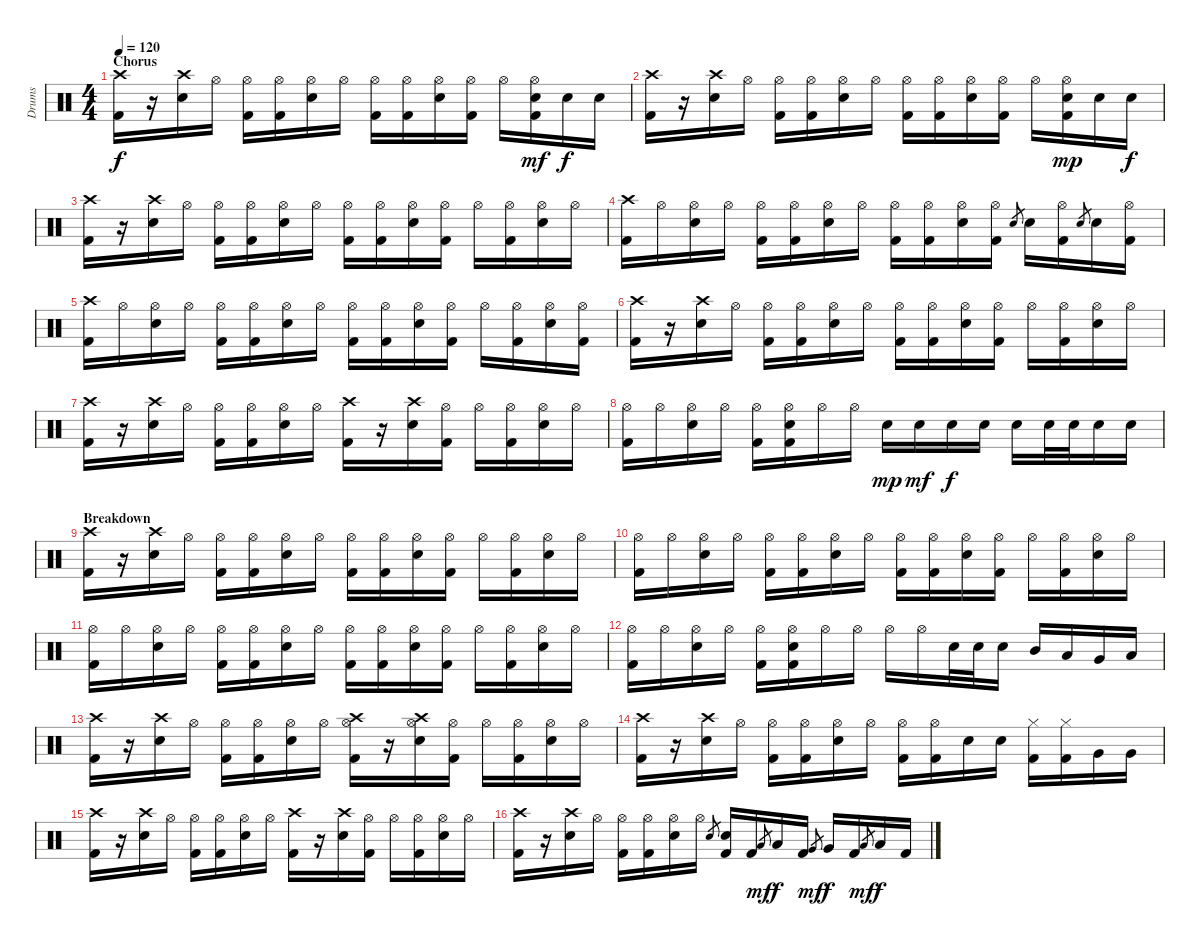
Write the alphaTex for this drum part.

\track ("Drums" "Drums") {instrument percussion}
\staff {score}
\articulation defaults
\ts (4 4)
\section ("" "Chorus")
\tempo 120
\clef neutral
\ks c
("Crash high (hit)" "Kick (hit) 2").16{dy f} r.16 ("Crash high (hit)" "Electric Snare (hit)").16 "Hi-Hat (open)".16 ("Hi-Hat (open)" "Kick (hit) 2").16 ("Hi-Hat (open)" "Kick (hit) 2").16 ("Hi-Hat (open)" "Electric Snare (hit)").16 "Hi-Hat (open)".16 ("Hi-Hat (open)" "Kick (hit) 2").16 ("Hi-Hat (open)" "Kick (hit) 2").16 ("Hi-Hat (open)" "Electric Snare (hit)").16 ("Hi-Hat (open)" "Kick (hit) 2").16 "Hi-Hat (open)".16 ("Hi-Hat (open)" "Electric Snare (hit)" "Kick (hit) 2").16{dy mf} "Electric Snare (hit)".16{dy f} "Electric Snare (hit)".16 |
("Crash high (hit)" "Kick (hit) 2").16 r.16 ("Crash high (hit)" "Electric Snare (hit)").16 "Hi-Hat (open)".16 ("Hi-Hat (open)" "Kick (hit) 2").16 ("Hi-Hat (open)" "Kick (hit) 2").16 ("Hi-Hat (open)" "Electric Snare (hit)").16 "Hi-Hat (open)".16 ("Hi-Hat (open)" "Kick (hit) 2").16 ("Hi-Hat (open)" "Kick (hit) 2").16 ("Hi-Hat (open)" "Electric Snare (hit)").16 ("Hi-Hat (open)" "Kick (hit) 2").16 "Hi-Hat (open)".16 ("Hi-Hat (open)" "Electric Snare (hit)" "Kick (hit) 2").16{dy mp} "Electric Snare (hit)".16 "Electric Snare (hit)".16{dy f} |
("Crash high (hit)" "Kick (hit) 2").16 r.16 ("Crash high (hit)" "Electric Snare (hit)").16 "Hi-Hat (open)".16 ("Hi-Hat (open)" "Kick (hit) 2").16 ("Hi-Hat (open)" "Kick (hit) 2").16 ("Hi-Hat (open)" "Electric Snare (hit)").16 "Hi-Hat (open)".16 ("Hi-Hat (open)" "Kick (hit) 2").16 ("Hi-Hat (open)" "Kick (hit) 2").16 ("Hi-Hat (open)" "Electric Snare (hit)").16 ("Hi-Hat (open)" "Kick (hit) 2").16 "Hi-Hat (open)".16 ("Hi-Hat (open)" "Kick (hit) 2").16 ("Hi-Hat (open)" "Electric Snare (hit)").16 "Hi-Hat (open)".16 |
("Crash high (hit)" "Kick (hit) 2").16 "Hi-Hat (open)".16 ("Hi-Hat (open)" "Electric Snare (hit)").16 "Hi-Hat (open)".16 ("Hi-Hat (open)" "Kick (hit) 2").16 ("Hi-Hat (open)" "Kick (hit) 2").16 ("Hi-Hat (open)" "Electric Snare (hit)").16 "Hi-Hat (open)".16 ("Hi-Hat (open)" "Kick (hit) 2").16 ("Hi-Hat (open)" "Kick (hit) 2").16 ("Hi-Hat (open)" "Electric Snare (hit)").16 ("Hi-Hat (open)" "Kick (hit) 2").16 "Electric Snare (hit)".8{gr} "Electric Snare (hit)".16 ("Hi-Hat (open)" "Kick (hit) 2").16 "Electric Snare (hit)".8{gr} "Electric Snare (hit)".16 ("Hi-Hat (open)" "Kick (hit) 2").16 |
("Crash high (hit)" "Kick (hit) 2").16 "Hi-Hat (open)".16 ("Hi-Hat (open)" "Electric Snare (hit)").16 "Hi-Hat (open)".16 ("Hi-Hat (open)" "Kick (hit) 2").16 ("Hi-Hat (open)" "Kick (hit) 2").16 ("Hi-Hat (open)" "Electric Snare (hit)").16 "Hi-Hat (open)".16 ("Hi-Hat (open)" "Kick (hit) 2").16 ("Hi-Hat (open)" "Kick (hit) 2").16 ("Hi-Hat (open)" "Electric Snare (hit)").16 ("Hi-Hat (open)" "Kick (hit) 2").16 "Hi-Hat (open)".16 ("Hi-Hat (open)" "Kick (hit) 2").16 ("Hi-Hat (open)" "Electric Snare (hit)").16 ("Hi-Hat (open)" "Kick (hit) 2").16 |
("Crash high (hit)" "Kick (hit) 2").16 r.16 ("Crash high (hit)" "Electric Snare (hit)").16 "Hi-Hat (open)".16 ("Hi-Hat (open)" "Kick (hit) 2").16 ("Hi-Hat (open)" "Kick (hit) 2").16 ("Hi-Hat (open)" "Electric Snare (hit)").16 "Hi-Hat (open)".16 ("Hi-Hat (open)" "Kick (hit) 2").16 ("Hi-Hat (open)" "Kick (hit) 2").16 ("Hi-Hat (open)" "Electric Snare (hit)").16 ("Hi-Hat (open)" "Kick (hit) 2").16 "Hi-Hat (open)".16 ("Hi-Hat (open)" "Kick (hit) 2").16 ("Hi-Hat (open)" "Electric Snare (hit)").16 "Hi-Hat (open)".16 |
("Crash high (hit)" "Kick (hit) 2").16 r.16 ("Crash high (hit)" "Electric Snare (hit)").16 "Hi-Hat (open)".16 ("Hi-Hat (open)" "Kick (hit) 2").16 ("Hi-Hat (open)" "Kick (hit) 2").16 ("Hi-Hat (open)" "Electric Snare (hit)").16 "Hi-Hat (open)".16 ("Crash high (hit)" "Kick (hit) 2").16 r.16 ("Crash high (hit)" "Electric Snare (hit)").16 ("Hi-Hat (open)" "Kick (hit) 2").16 "Hi-Hat (open)".16 ("Hi-Hat (open)" "Kick (hit) 2").16 ("Hi-Hat (open)" "Electric Snare (hit)").16 "Hi-Hat (open)".16 |
("Hi-Hat (open)" "Kick (hit) 2").16 "Hi-Hat (open)".16 ("Hi-Hat (open)" "Electric Snare (hit)").16 "Hi-Hat (open)".16 ("Hi-Hat (open)" "Kick (hit) 2").16 ("Hi-Hat (open)" "Electric Snare (hit)" "Kick (hit) 2").16 "Hi-Hat (open)".16 "Hi-Hat (open)".16 "Electric Snare (hit)".16{dy mp} "Electric Snare (hit)".16{dy mf} "Electric Snare (hit)".16{dy f} "Electric Snare (hit)".16 "Electric Snare (hit)".16 "Electric Snare (hit)".32 "Electric Snare (hit)".32 "Electric Snare (hit)".16 "Electric Snare (hit)".16 |
\section ("" "Breakdown")
("Crash high (hit)" "Kick (hit) 2").16 r.16 ("Crash high (hit)" "Electric Snare (hit)").16 "Hi-Hat (open)".16 ("Hi-Hat (open)" "Kick (hit) 2").16 ("Hi-Hat (open)" "Kick (hit) 2").16 ("Hi-Hat (open)" "Electric Snare (hit)").16 "Hi-Hat (open)".16 ("Hi-Hat (open)" "Kick (hit) 2").16 ("Hi-Hat (open)" "Kick (hit) 2").16 ("Hi-Hat (open)" "Electric Snare (hit)").16 ("Hi-Hat (open)" "Kick (hit) 2").16 "Hi-Hat (open)".16 ("Hi-Hat (open)" "Kick (hit) 2").16 ("Hi-Hat (open)" "Electric Snare (hit)").16 "Hi-Hat (open)".16 |
("Hi-Hat (open)" "Kick (hit) 2").16 "Hi-Hat (open)".16 ("Hi-Hat (open)" "Electric Snare (hit)").16 "Hi-Hat (open)".16 ("Hi-Hat (open)" "Kick (hit) 2").16 ("Hi-Hat (open)" "Kick (hit) 2").16 ("Hi-Hat (open)" "Electric Snare (hit)").16 "Hi-Hat (open)".16 ("Hi-Hat (open)" "Kick (hit) 2").16 ("Hi-Hat (open)" "Kick (hit) 2").16 ("Hi-Hat (open)" "Electric Snare (hit)").16 ("Hi-Hat (open)" "Kick (hit) 2").16 "Hi-Hat (open)".16 ("Hi-Hat (open)" "Kick (hit) 2").16 ("Hi-Hat (open)" "Electric Snare (hit)").16 "Hi-Hat (open)".16 |
("Hi-Hat (open)" "Kick (hit) 2").16 "Hi-Hat (open)".16 ("Hi-Hat (open)" "Electric Snare (hit)").16 "Hi-Hat (open)".16 ("Hi-Hat (open)" "Kick (hit) 2").16 ("Hi-Hat (open)" "Kick (hit) 2").16 ("Hi-Hat (open)" "Electric Snare (hit)").16 "Hi-Hat (open)".16 ("Hi-Hat (open)" "Kick (hit) 2").16 ("Hi-Hat (open)" "Kick (hit) 2").16 ("Hi-Hat (open)" "Electric Snare (hit)").16 ("Hi-Hat (open)" "Kick (hit) 2").16 "Hi-Hat (open)".16 ("Hi-Hat (open)" "Kick (hit) 2").16 ("Hi-Hat (open)" "Electric Snare (hit)").16 "Hi-Hat (open)".16 |
("Hi-Hat (open)" "Kick (hit) 2").16 "Hi-Hat (open)".16 ("Hi-Hat (open)" "Electric Snare (hit)").16 "Hi-Hat (open)".16 ("Hi-Hat (open)" "Kick (hit) 2").16 ("Hi-Hat (open)" "Electric Snare (hit)" "Kick (hit) 2").16 "Hi-Hat (open)".16 "Hi-Hat (open)".16 "Hi-Hat (open)".16 "Hi-Hat (open)".16 "Electric Snare (hit)".32 "Electric Snare (hit)".32 "Electric Snare (hit)".16 "Mid Tom (hit)".16 "Low Tom (hit)".16 "Very Low Tom (hit)".16 "Low Floor Tom (hit)".16 |
("Crash high (hit)" "Kick (hit) 2").16 r.16 ("Crash high (hit)" "Electric Snare (hit)").16 "Hi-Hat (open)".16 ("Hi-Hat (open)" "Kick (hit) 2").16 ("Hi-Hat (open)" "Kick (hit) 2").16 ("Hi-Hat (open)" "Electric Snare (hit)").16 "Hi-Hat (open)".16 ("Crash high (hit)" "Hi-Hat (open)" "Kick (hit) 2").16 r.16 ("Crash high (hit)" "Hi-Hat (open)" "Electric Snare (hit)").16 ("Hi-Hat (open)" "Kick (hit) 2").16 "Hi-Hat (open)".16 ("Hi-Hat (open)" "Kick (hit) 2").16 ("Hi-Hat (open)" "Electric Snare (hit)").16 "Hi-Hat (open)".16 |
("Crash high (hit)" "Kick (hit) 2").16 r.16 ("Crash high (hit)" "Electric Snare (hit)").16 "Hi-Hat (open)".16 ("Hi-Hat (open)" "Kick (hit) 2").16 ("Hi-Hat (open)" "Kick (hit) 2").16 ("Hi-Hat (open)" "Electric Snare (hit)").16 "Hi-Hat (open)".16 ("Hi-Hat (open)" "Kick (hit) 2").16 ("Hi-Hat (open)" "Kick (hit) 2").16 "Electric Snare (hit)".16 "Electric Snare (hit)".16 ("Hi-Hat (closed)" "Kick (hit) 2").16 ("Hi-Hat (closed)" "Kick (hit) 2").16 "Very Low Tom (hit)".16 "Very Low Tom (hit)".16 |
("Crash high (hit)" "Kick (hit) 2").16 r.16 ("Crash high (hit)" "Electric Snare (hit)").16 "Hi-Hat (open)".16 ("Hi-Hat (open)" "Kick (hit) 2").16 ("Hi-Hat (open)" "Kick (hit) 2").16 ("Hi-Hat (open)" "Electric Snare (hit)").16 "Hi-Hat (open)".16 ("Crash high (hit)" "Kick (hit) 2").16 r.16 ("Crash high (hit)" "Electric Snare (hit)").16 ("Hi-Hat (open)" "Kick (hit) 2").16 "Hi-Hat (open)".16 ("Hi-Hat (open)" "Kick (hit) 2").16 ("Hi-Hat (open)" "Electric Snare (hit)").16 "Hi-Hat (open)".16 |
("Crash high (hit)" "Kick (hit) 2").16 r.16 ("Crash high (hit)" "Electric Snare (hit)").16 "Hi-Hat (open)".16 ("Hi-Hat (open)" "Kick (hit) 2").16 ("Hi-Hat (open)" "Kick (hit) 2").16 ("Hi-Hat (open)" "Electric Snare (hit)").16 "Hi-Hat (open)".16 "Electric Snare (hit)".8{gr} ("Electric Snare (hit)" "Kick (hit) 2").16 "Kick (hit) 2".16 "Low Tom (hit)".8{gr dy mf} "Low Tom (hit)".16{dy f} "Kick (hit) 2".16 "Very Low Tom (hit)".8{gr dy mf} "Very Low Tom (hit)".16{dy f} "Kick (hit) 2".16 "Low Floor Tom (hit)".8{gr dy mf} "Low Floor Tom (hit)".16{dy f} "Kick (hit) 2".16
